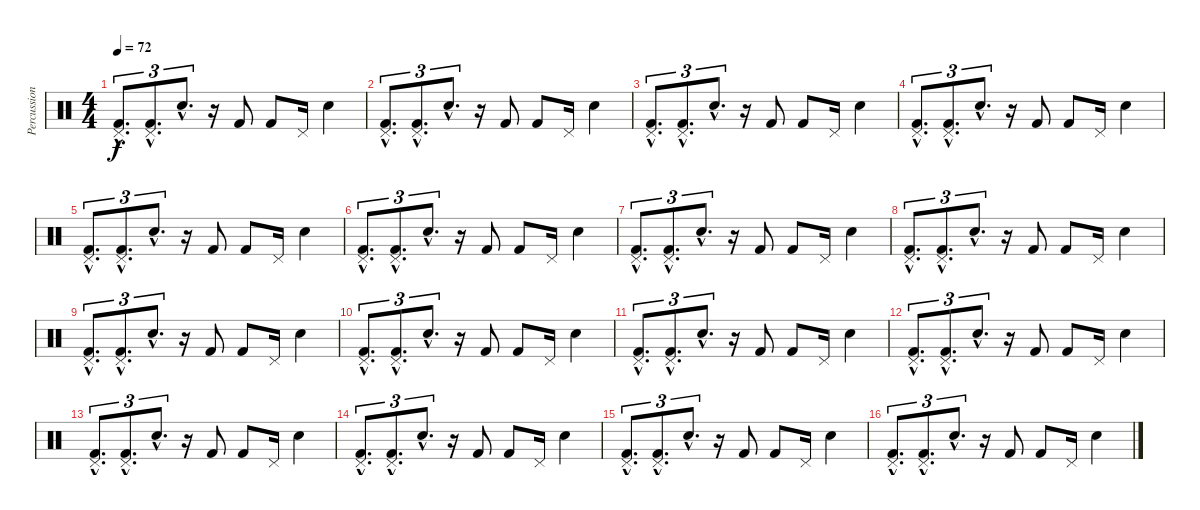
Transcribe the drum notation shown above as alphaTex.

\track ("Percussion" "Percussion") {instrument percussion}
\staff {score}
\articulation defaults
\ts (4 4)
\tempo 72
\clef neutral
\ks c
("Kick (hit) 2"{hac} "Pedal Hi-Hat (hit)"{hac}).8{d tu (3 2) dy f} ("Kick (hit) 2"{hac} "Pedal Hi-Hat (hit)"{hac}).8{d tu (3 2)} "Snare (hit) 2"{hac}.8{d tu (3 2)} r.16 "Kick (hit) 2".8 "Kick (hit) 2".8 "Pedal Hi-Hat (hit)".16 "Snare (hit) 2".4 |
("Kick (hit) 2"{hac} "Pedal Hi-Hat (hit)"{hac}).8{d tu (3 2)} ("Kick (hit) 2"{hac} "Pedal Hi-Hat (hit)"{hac}).8{d tu (3 2)} "Snare (hit) 2"{hac}.8{d tu (3 2)} r.16 "Kick (hit) 2".8 "Kick (hit) 2".8 "Pedal Hi-Hat (hit)".16 "Snare (hit) 2".4 |
("Kick (hit) 2"{hac} "Pedal Hi-Hat (hit)"{hac}).8{d tu (3 2)} ("Kick (hit) 2"{hac} "Pedal Hi-Hat (hit)"{hac}).8{d tu (3 2)} "Snare (hit) 2"{hac}.8{d tu (3 2)} r.16 "Kick (hit) 2".8 "Kick (hit) 2".8 "Pedal Hi-Hat (hit)".16 "Snare (hit) 2".4 |
("Kick (hit) 2"{hac} "Pedal Hi-Hat (hit)"{hac}).8{d tu (3 2)} ("Kick (hit) 2"{hac} "Pedal Hi-Hat (hit)"{hac}).8{d tu (3 2)} "Snare (hit) 2"{hac}.8{d tu (3 2)} r.16 "Kick (hit) 2".8 "Kick (hit) 2".8 "Pedal Hi-Hat (hit)".16 "Snare (hit) 2".4 |
("Kick (hit) 2"{hac} "Pedal Hi-Hat (hit)"{hac}).8{d tu (3 2)} ("Kick (hit) 2"{hac} "Pedal Hi-Hat (hit)"{hac}).8{d tu (3 2)} "Snare (hit) 2"{hac}.8{d tu (3 2)} r.16 "Kick (hit) 2".8 "Kick (hit) 2".8 "Pedal Hi-Hat (hit)".16 "Snare (hit) 2".4 |
("Kick (hit) 2"{hac} "Pedal Hi-Hat (hit)"{hac}).8{d tu (3 2)} ("Kick (hit) 2"{hac} "Pedal Hi-Hat (hit)"{hac}).8{d tu (3 2)} "Snare (hit) 2"{hac}.8{d tu (3 2)} r.16 "Kick (hit) 2".8 "Kick (hit) 2".8 "Pedal Hi-Hat (hit)".16 "Snare (hit) 2".4 |
("Kick (hit) 2"{hac} "Pedal Hi-Hat (hit)"{hac}).8{d tu (3 2)} ("Kick (hit) 2"{hac} "Pedal Hi-Hat (hit)"{hac}).8{d tu (3 2)} "Snare (hit) 2"{hac}.8{d tu (3 2)} r.16 "Kick (hit) 2".8 "Kick (hit) 2".8 "Pedal Hi-Hat (hit)".16 "Snare (hit) 2".4 |
("Kick (hit) 2"{hac} "Pedal Hi-Hat (hit)"{hac}).8{d tu (3 2)} ("Kick (hit) 2"{hac} "Pedal Hi-Hat (hit)"{hac}).8{d tu (3 2)} "Snare (hit) 2"{hac}.8{d tu (3 2)} r.16 "Kick (hit) 2".8 "Kick (hit) 2".8 "Pedal Hi-Hat (hit)".16 "Snare (hit) 2".4 |
("Kick (hit) 2"{hac} "Pedal Hi-Hat (hit)"{hac}).8{d tu (3 2)} ("Kick (hit) 2"{hac} "Pedal Hi-Hat (hit)"{hac}).8{d tu (3 2)} "Snare (hit) 2"{hac}.8{d tu (3 2)} r.16 "Kick (hit) 2".8 "Kick (hit) 2".8 "Pedal Hi-Hat (hit)".16 "Snare (hit) 2".4 |
("Kick (hit) 2"{hac} "Pedal Hi-Hat (hit)"{hac}).8{d tu (3 2)} ("Kick (hit) 2"{hac} "Pedal Hi-Hat (hit)"{hac}).8{d tu (3 2)} "Snare (hit) 2"{hac}.8{d tu (3 2)} r.16 "Kick (hit) 2".8 "Kick (hit) 2".8 "Pedal Hi-Hat (hit)".16 "Snare (hit) 2".4 |
("Kick (hit) 2"{hac} "Pedal Hi-Hat (hit)"{hac}).8{d tu (3 2)} ("Kick (hit) 2"{hac} "Pedal Hi-Hat (hit)"{hac}).8{d tu (3 2)} "Snare (hit) 2"{hac}.8{d tu (3 2)} r.16 "Kick (hit) 2".8 "Kick (hit) 2".8 "Pedal Hi-Hat (hit)".16 "Snare (hit) 2".4 |
("Kick (hit) 2"{hac} "Pedal Hi-Hat (hit)"{hac}).8{d tu (3 2)} ("Kick (hit) 2"{hac} "Pedal Hi-Hat (hit)"{hac}).8{d tu (3 2)} "Snare (hit) 2"{hac}.8{d tu (3 2)} r.16 "Kick (hit) 2".8 "Kick (hit) 2".8 "Pedal Hi-Hat (hit)".16 "Snare (hit) 2".4 |
("Kick (hit) 2"{hac} "Pedal Hi-Hat (hit)"{hac}).8{d tu (3 2)} ("Kick (hit) 2"{hac} "Pedal Hi-Hat (hit)"{hac}).8{d tu (3 2)} "Snare (hit) 2"{hac}.8{d tu (3 2)} r.16 "Kick (hit) 2".8 "Kick (hit) 2".8 "Pedal Hi-Hat (hit)".16 "Snare (hit) 2".4 |
("Kick (hit) 2"{hac} "Pedal Hi-Hat (hit)"{hac}).8{d tu (3 2)} ("Kick (hit) 2"{hac} "Pedal Hi-Hat (hit)"{hac}).8{d tu (3 2)} "Snare (hit) 2"{hac}.8{d tu (3 2)} r.16 "Kick (hit) 2".8 "Kick (hit) 2".8 "Pedal Hi-Hat (hit)".16 "Snare (hit) 2".4 |
("Kick (hit) 2"{hac} "Pedal Hi-Hat (hit)"{hac}).8{d tu (3 2)} ("Kick (hit) 2"{hac} "Pedal Hi-Hat (hit)"{hac}).8{d tu (3 2)} "Snare (hit) 2"{hac}.8{d tu (3 2)} r.16 "Kick (hit) 2".8 "Kick (hit) 2".8 "Pedal Hi-Hat (hit)".16 "Snare (hit) 2".4 |
("Kick (hit) 2"{hac} "Pedal Hi-Hat (hit)"{hac}).8{d tu (3 2)} ("Kick (hit) 2"{hac} "Pedal Hi-Hat (hit)"{hac}).8{d tu (3 2)} "Snare (hit) 2"{hac}.8{d tu (3 2)} r.16 "Kick (hit) 2".8 "Kick (hit) 2".8 "Pedal Hi-Hat (hit)".16 "Snare (hit) 2".4
